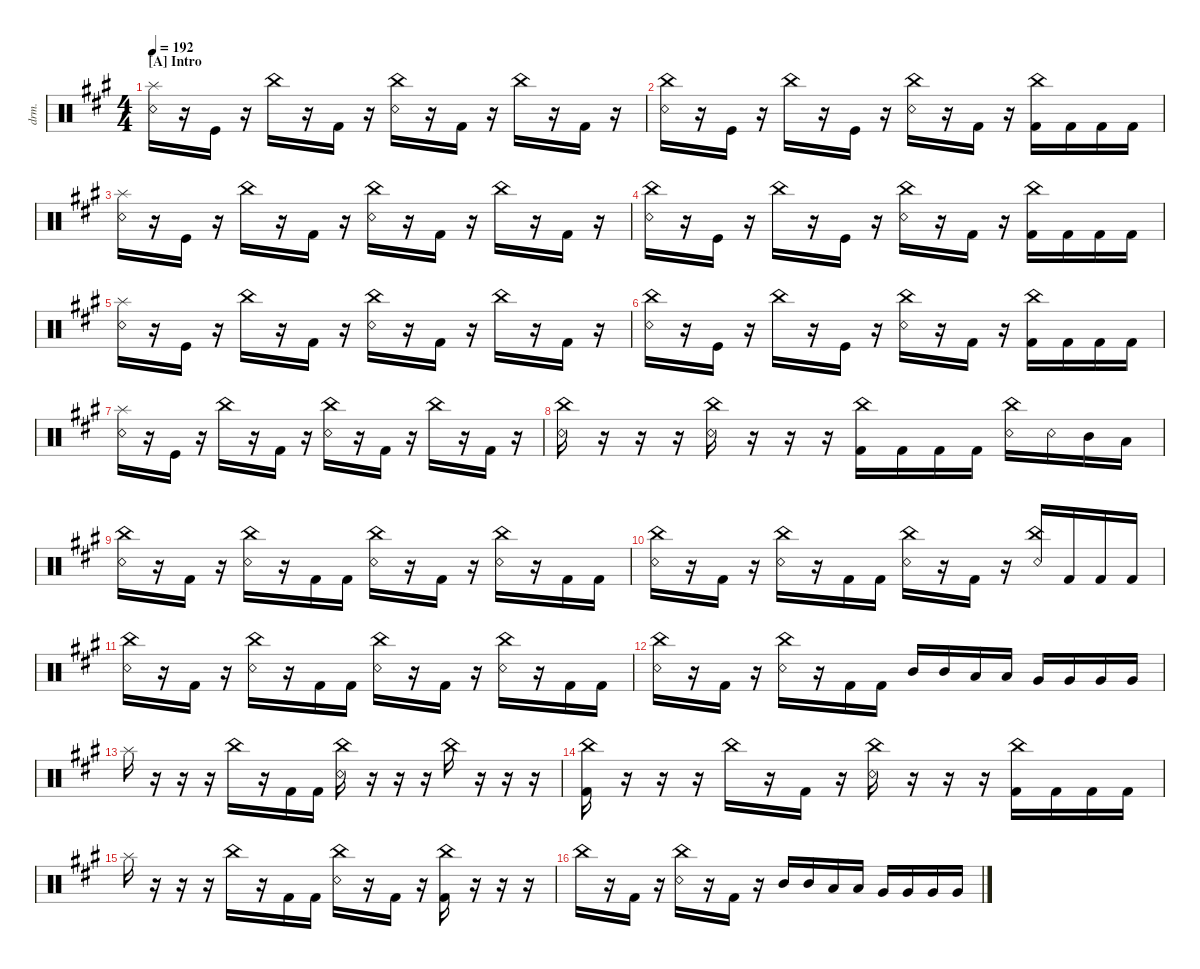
\defaultSystemsLayout 4
\hideDynamics
\bracketExtendMode nobrackets
\otherSystemsTrackNameOrientation horizontal
\track ("Drumkit" "drm.") {instrument percussion}
\staff {score}
\articulation defaults
\ts (4 4)
\section ("A" "Intro")
\tempo 192
\clef neutral
\ks a
("Snare (rim shot)"{acc forcenatural} "Splash (hit)"{acc forcenatural}).16{dy ff beam Down} r.16{beam Down} "Kick (hit)"{acc forcenatural}.16{beam Down} r.16{beam Down} "China (hit)"{acc forcenatural}.16{beam Down} r.16{beam Down} "Kick (hit) 2"{acc forcenatural}.16{beam Down} r.16{beam Down} ("China (hit)"{acc forcenatural} "Snare (rim shot)"{acc forcenatural}).16{beam Down} r.16{beam Down} "Kick (hit) 2"{acc forcenatural}.16{beam Down} r.16{beam Down} "China (hit)"{acc forcenatural}.16{beam Down} r.16{beam Down} "Kick (hit) 2"{acc forcenatural}.16{beam Down} r.16{beam Down} |
("China (hit)"{acc forcenatural} "Snare (rim shot)"{acc forcenatural}).16{beam Down} r.16{beam Down} "Kick (hit)"{acc forcenatural}.16{beam Down} r.16{beam Down} "China (hit)"{acc forcenatural}.16{beam Down} r.16{beam Down} "Kick (hit)"{acc forcenatural}.16{beam Down} r.16{beam Down} ("China (hit)"{acc forcenatural} "Snare (rim shot)"{acc forcenatural}).16{beam Down} r.16{beam Down} "Kick (hit) 2"{acc forcenatural}.16{beam Down} r.16{beam Down} ("China (hit)"{acc forcenatural} "Kick (hit) 2"{acc forcenatural}).16{beam Down} "Kick (hit) 2"{acc forcenatural}.16{beam Down} "Kick (hit) 2"{acc forcenatural}.16{beam Down} "Kick (hit) 2"{acc forcenatural}.16{beam Down} |
("Snare (rim shot)"{acc forcenatural} "Splash (hit)"{acc forcenatural}).16{beam Down} r.16{beam Down} "Kick (hit)"{acc forcenatural}.16{beam Down} r.16{beam Down} "China (hit)"{acc forcenatural}.16{beam Down} r.16{beam Down} "Kick (hit) 2"{acc forcenatural}.16{beam Down} r.16{beam Down} ("China (hit)"{acc forcenatural} "Snare (rim shot)"{acc forcenatural}).16{beam Down} r.16{beam Down} "Kick (hit) 2"{acc forcenatural}.16{beam Down} r.16{beam Down} "China (hit)"{acc forcenatural}.16{beam Down} r.16{beam Down} "Kick (hit) 2"{acc forcenatural}.16{beam Down} r.16{beam Down} |
("China (hit)"{acc forcenatural} "Snare (rim shot)"{acc forcenatural}).16{beam Down} r.16{beam Down} "Kick (hit)"{acc forcenatural}.16{beam Down} r.16{beam Down} "China (hit)"{acc forcenatural}.16{beam Down} r.16{beam Down} "Kick (hit)"{acc forcenatural}.16{beam Down} r.16{beam Down} ("China (hit)"{acc forcenatural} "Snare (rim shot)"{acc forcenatural}).16{beam Down} r.16{beam Down} "Kick (hit) 2"{acc forcenatural}.16{beam Down} r.16{beam Down} ("China (hit)"{acc forcenatural} "Kick (hit) 2"{acc forcenatural}).16{beam Down} "Kick (hit) 2"{acc forcenatural}.16{beam Down} "Kick (hit) 2"{acc forcenatural}.16{beam Down} "Kick (hit) 2"{acc forcenatural}.16{beam Down} |
("Snare (rim shot)"{acc forcenatural} "Splash (hit)"{acc forcenatural}).16{beam Down} r.16{beam Down} "Kick (hit)"{acc forcenatural}.16{beam Down} r.16{beam Down} "China (hit)"{acc forcenatural}.16{beam Down} r.16{beam Down} "Kick (hit) 2"{acc forcenatural}.16{beam Down} r.16{beam Down} ("China (hit)"{acc forcenatural} "Snare (rim shot)"{acc forcenatural}).16{beam Down} r.16{beam Down} "Kick (hit) 2"{acc forcenatural}.16{beam Down} r.16{beam Down} "China (hit)"{acc forcenatural}.16{beam Down} r.16{beam Down} "Kick (hit) 2"{acc forcenatural}.16{beam Down} r.16{beam Down} |
("China (hit)"{acc forcenatural} "Snare (rim shot)"{acc forcenatural}).16{beam Down} r.16{beam Down} "Kick (hit)"{acc forcenatural}.16{beam Down} r.16{beam Down} "China (hit)"{acc forcenatural}.16{beam Down} r.16{beam Down} "Kick (hit)"{acc forcenatural}.16{beam Down} r.16{beam Down} ("China (hit)"{acc forcenatural} "Snare (rim shot)"{acc forcenatural}).16{beam Down} r.16{beam Down} "Kick (hit) 2"{acc forcenatural}.16{beam Down} r.16{beam Down} ("China (hit)"{acc forcenatural} "Kick (hit) 2"{acc forcenatural}).16{beam Down} "Kick (hit) 2"{acc forcenatural}.16{beam Down} "Kick (hit) 2"{acc forcenatural}.16{beam Down} "Kick (hit) 2"{acc forcenatural}.16{beam Down} |
("Snare (rim shot)"{acc forcenatural} "Splash (hit)"{acc forcenatural}).16{beam Down} r.16{beam Down} "Kick (hit)"{acc forcenatural}.16{beam Down} r.16{beam Down} "China (hit)"{acc forcenatural}.16{beam Down} r.16{beam Down} "Kick (hit) 2"{acc forcenatural}.16{beam Down} r.16{beam Down} ("China (hit)"{acc forcenatural} "Snare (rim shot)"{acc forcenatural}).16{beam Down} r.16{beam Down} "Kick (hit) 2"{acc forcenatural}.16{beam Down} r.16{beam Down} "China (hit)"{acc forcenatural}.16{beam Down} r.16{beam Down} "Kick (hit) 2"{acc forcenatural}.16{beam Down} r.16{beam Down} |
("China (hit)"{acc forcenatural} "Snare (rim shot)"{acc forcenatural}).16{beam Down} r.16{beam Down} r.16{beam Down} r.16{beam Down} ("China (hit)"{acc forcenatural} "Snare (rim shot)"{acc forcenatural}).16{beam Down} r.16{beam Down} r.16{beam Down} r.16{beam Down} ("China (hit)"{acc forcenatural} "Kick (hit) 2"{acc forcenatural}).16{beam Down} "Kick (hit) 2"{acc forcenatural}.16{beam Down} "Kick (hit) 2"{acc forcenatural}.16{beam Down} "Kick (hit) 2"{acc forcenatural}.16{beam Down} ("China (hit)"{acc forcenatural} "Snare (rim shot)"{acc forcenatural}).16{beam Down} "Snare (rim shot)"{acc forcenatural}.16{beam Down} "Mid Tom (hit)"{acc forcenatural}.16{beam Down} "Low Tom (hit)"{acc forcenatural}.16{beam Down} |
("China (hit)"{acc forcenatural} "Snare (rim shot)"{acc forcenatural}).16{beam Down} r.16{beam Down} "Kick (hit) 2"{acc forcenatural}.16{beam Down} r.16{beam Down} ("China (hit)"{acc forcenatural} "Snare (rim shot)"{acc forcenatural}).16{beam Down} r.16{beam Down} "Kick (hit) 2"{acc forcenatural}.16{beam Down} "Kick (hit) 2"{acc forcenatural}.16{beam Down} ("China (hit)"{acc forcenatural} "Snare (rim shot)"{acc forcenatural}).16{beam Down} r.16{beam Down} "Kick (hit) 2"{acc forcenatural}.16{beam Down} r.16{beam Down} ("China (hit)"{acc forcenatural} "Snare (rim shot)"{acc forcenatural}).16{beam Down} r.16{beam Down} "Kick (hit) 2"{acc forcenatural}.16{beam Down} "Kick (hit) 2"{acc forcenatural}.16{beam Down} |
("China (hit)"{acc forcenatural} "Snare (rim shot)"{acc forcenatural}).16{beam Down} r.16{beam Down} "Kick (hit) 2"{acc forcenatural}.16{beam Down} r.16{beam Down} ("China (hit)"{acc forcenatural} "Snare (rim shot)"{acc forcenatural}).16{beam Down} r.16{beam Down} "Kick (hit) 2"{acc forcenatural}.16{beam Down} "Kick (hit) 2"{acc forcenatural}.16{beam Down} ("China (hit)"{acc forcenatural} "Snare (rim shot)"{acc forcenatural}).16{beam Down} r.16{beam Down} "Kick (hit) 2"{acc forcenatural}.16{beam Down} r.16{beam Down} ("China (hit)"{acc forcenatural} "Snare (rim shot)"{acc forcenatural}).16{beam Up} "Kick (hit) 2"{acc forcenatural}.16{beam Up} "Kick (hit) 2"{acc forcenatural}.16{beam Up} "Kick (hit) 2"{acc forcenatural}.16{beam Up} |
("China (hit)"{acc forcenatural} "Snare (rim shot)"{acc forcenatural}).16{beam Down} r.16{beam Down} "Kick (hit) 2"{acc forcenatural}.16{beam Down} r.16{beam Down} ("China (hit)"{acc forcenatural} "Snare (rim shot)"{acc forcenatural}).16{beam Down} r.16{beam Down} "Kick (hit) 2"{acc forcenatural}.16{beam Down} "Kick (hit) 2"{acc forcenatural}.16{beam Down} ("China (hit)"{acc forcenatural} "Snare (rim shot)"{acc forcenatural}).16{beam Down} r.16{beam Down} "Kick (hit) 2"{acc forcenatural}.16{beam Down} r.16{beam Down} ("China (hit)"{acc forcenatural} "Snare (rim shot)"{acc forcenatural}).16{beam Down} r.16{beam Down} "Kick (hit) 2"{acc forcenatural}.16{beam Down} "Kick (hit) 2"{acc forcenatural}.16{beam Down} |
("China (hit)"{acc forcenatural} "Snare (rim shot)"{acc forcenatural}).16{beam Down} r.16{beam Down} "Kick (hit) 2"{acc forcenatural}.16{beam Down} r.16{beam Down} ("China (hit)"{acc forcenatural} "Snare (rim shot)"{acc forcenatural}).16{beam Down} r.16{beam Down} "Kick (hit) 2"{acc forcenatural}.16{beam Down} "Kick (hit) 2"{acc forcenatural}.16{beam Down} "Mid Tom (hit)"{acc forcenatural}.16{beam Up} "Mid Tom (hit)"{acc forcenatural}.16{beam Up} "Low Tom (hit)"{acc forcenatural}.16{beam Up} "Low Tom (hit)"{acc forcenatural}.16{beam Up} "Very Low Tom (hit)"{acc forcenatural}.16{beam Up} "Very Low Tom (hit)"{acc forcenatural}.16{beam Up} "Very Low Tom (hit)"{acc forcenatural}.16{beam Up} "Very Low Tom (hit)"{acc forcenatural}.16{beam Up} |
"Splash (hit)"{acc forcenatural}.16{beam Down} r.16{beam Down} r.16{beam Down} r.16{beam Down} "China (hit)"{acc forcenatural}.16{beam Down} r.16{beam Down} "Kick (hit) 2"{acc forcenatural}.16{beam Down} "Kick (hit) 2"{acc forcenatural}.16{beam Down} ("China (hit)"{acc forcenatural} "Snare (rim shot)"{acc forcenatural}).16{beam Down} r.16{beam Down} r.16{beam Down} r.16{beam Down} "China (hit)"{acc forcenatural}.16{beam Down} r.16{beam Down} r.16{beam Down} r.16{beam Down} |
("China (hit)"{acc forcenatural} "Kick (hit) 2"{acc forcenatural}).16{beam Down} r.16{beam Down} r.16{beam Down} r.16{beam Down} "China (hit)"{acc forcenatural}.16{beam Down} r.16{beam Down} "Kick (hit) 2"{acc forcenatural}.16{beam Down} r.16{beam Down} ("China (hit)"{acc forcenatural} "Snare (rim shot)"{acc forcenatural}).16{beam Down} r.16{beam Down} r.16{beam Down} r.16{beam Down} ("China (hit)"{acc forcenatural} "Kick (hit) 2"{acc forcenatural}).16{beam Down} "Kick (hit) 2"{acc forcenatural}.16{beam Down} "Kick (hit) 2"{acc forcenatural}.16{beam Down} "Kick (hit) 2"{acc forcenatural}.16{beam Down} |
"Splash (hit)"{acc forcenatural}.16{beam Down} r.16{beam Down} r.16{beam Down} r.16{beam Down} "China (hit)"{acc forcenatural}.16{beam Down} r.16{beam Down} "Kick (hit) 2"{acc forcenatural}.16{beam Down} "Kick (hit) 2"{acc forcenatural}.16{beam Down} ("China (hit)"{acc forcenatural} "Snare (rim shot)"{acc forcenatural}).16{beam Down} r.16{beam Down} "Kick (hit) 2"{acc forcenatural}.16{beam Down} r.16{beam Down} ("China (hit)"{acc forcenatural} "Kick (hit) 2"{acc forcenatural}).16{beam Down} r.16{beam Down} r.16{beam Down} r.16{beam Down} |
"China (hit)"{acc forcenatural}.16{beam Down} r.16{beam Down} "Kick (hit) 2"{acc forcenatural}.16{beam Down} r.16{beam Down} ("China (hit)"{acc forcenatural} "Snare (rim shot)"{acc forcenatural}).16{beam Down} r.16{beam Down} "Kick (hit) 2"{acc forcenatural}.16{beam Down} r.16{beam Down} "Mid Tom (hit)"{acc forcenatural}.16{beam Up} "Mid Tom (hit)"{acc forcenatural}.16{beam Up} "Low Tom (hit)"{acc forcenatural}.16{beam Up} "Low Tom (hit)"{acc forcenatural}.16{beam Up} "Very Low Tom (hit)"{acc forcenatural}.16{beam Up} "Very Low Tom (hit)"{acc forcenatural}.16{beam Up} "Very Low Tom (hit)"{acc forcenatural}.16{beam Up} "Very Low Tom (hit)"{acc forcenatural}.16{beam Up}
